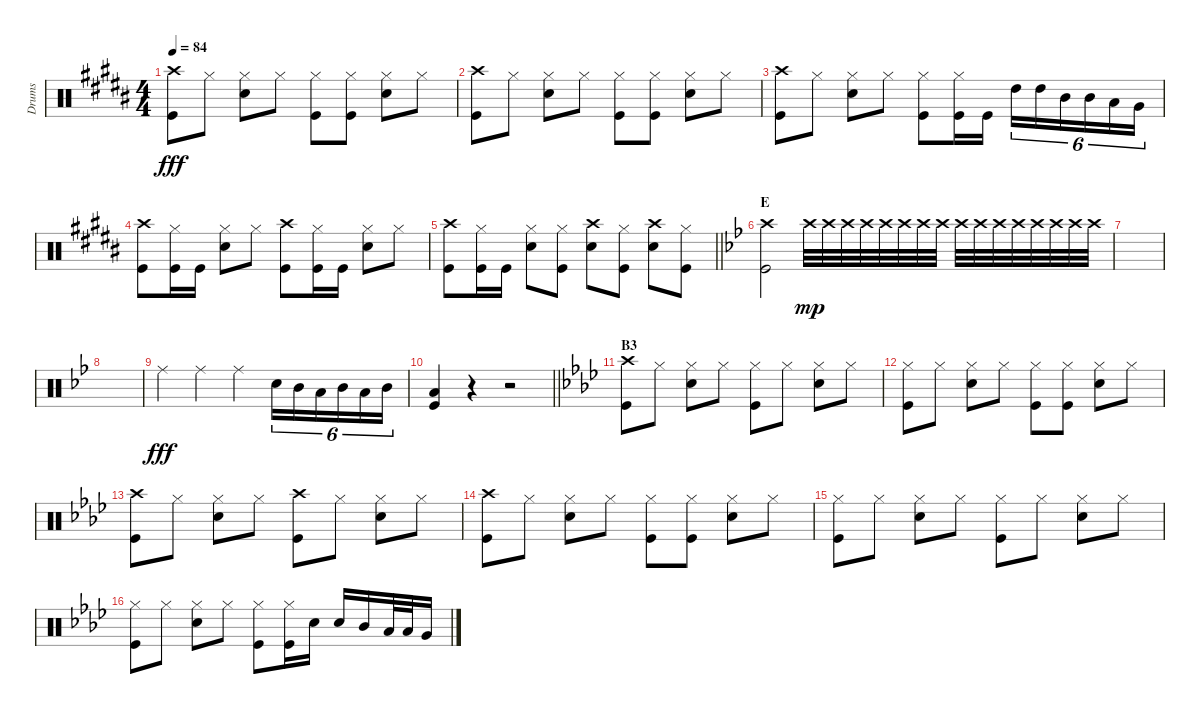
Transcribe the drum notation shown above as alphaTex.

\track ("Drums" "Drums") {instrument percussion}
\staff {score}
\articulation defaults
\ts (4 4)
\tempo 84
\clef neutral
\ks b
("Crash high (hit)" "Kick (hit)").8{dy fff} "Hi-Hat (closed)".8 ("Hi-Hat (closed)" "Snare (hit) 2").8 "Hi-Hat (closed)".8 ("Hi-Hat (closed)" "Kick (hit)").8 ("Hi-Hat (closed)" "Kick (hit)").8 ("Hi-Hat (closed)" "Snare (hit) 2").8 "Hi-Hat (closed)".8 |
("Crash high (hit)" "Kick (hit)").8 "Hi-Hat (closed)".8 ("Hi-Hat (closed)" "Snare (hit) 2").8 "Hi-Hat (closed)".8 ("Hi-Hat (closed)" "Kick (hit)").8 ("Hi-Hat (closed)" "Kick (hit)").8 ("Hi-Hat (closed)" "Snare (hit) 2").8 "Hi-Hat (closed)".8 |
("Crash high (hit)" "Kick (hit)").8 "Hi-Hat (closed)".8 ("Hi-Hat (closed)" "Snare (hit) 2").8 "Hi-Hat (closed)".8 ("Hi-Hat (closed)" "Kick (hit)").8 ("Hi-Hat (closed)" "Kick (hit)").16 "Kick (hit)".16 "High Tom (hit)".16{tu (6 4)} "High Tom (hit)".16{tu (6 4)} "Mid Tom (hit)".16{tu (6 4)} "Mid Tom (hit)".16{tu (6 4)} "Low Tom (hit)".16{tu (6 4)} "Very Low Tom (hit)".16{tu (6 4)} |
("Crash high (hit)" "Kick (hit)").8 ("Hi-Hat (closed)" "Kick (hit)").16 "Kick (hit)".16 ("Hi-Hat (closed)" "Snare (hit) 2").8 "Hi-Hat (closed)".8 ("Crash high (hit)" "Kick (hit)").8 ("Hi-Hat (closed)" "Kick (hit)").16 "Kick (hit)".16 ("Hi-Hat (closed)" "Snare (hit) 2").8 "Hi-Hat (closed)".8 |
\barLineRight lightlight
("Crash high (hit)" "Kick (hit)").8 ("Hi-Hat (closed)" "Kick (hit)").16 "Kick (hit)".16 ("Hi-Hat (closed)" "Snare (hit) 2").8 ("Hi-Hat (closed)" "Kick (hit)").8 ("Crash high (hit)" "Snare (hit) 2").8 ("Hi-Hat (closed)" "Kick (hit)").8 ("Crash high (hit)" "Snare (hit) 2").8 ("Hi-Hat (closed)" "Kick (hit)").8 |
\section ("" "E")
\ks bb
("Crash high (hit)" "Kick (hit)").2 "Crash high (hit)".32{dy mp} "Crash high (hit)".32 "Crash high (hit)".32 "Crash high (hit)".32 "Crash high (hit)".32 "Crash high (hit)".32 "Crash high (hit)".32 "Crash high (hit)".32 "Crash high (hit)".32 "Crash high (hit)".32 "Crash high (hit)".32 "Crash high (hit)".32 "Crash high (hit)".32 "Crash high (hit)".32 "Crash high (hit)".32 "Crash high (hit)".32 |
|
|
"Ride (middle)".4{dy fff} "Ride (middle)".4 "Ride (middle)".4 "Snare (hit) 2".16{tu (6 4)} "Mid Tom (hit)".16{tu (6 4)} "Low Tom (hit)".16{tu (6 4)} "Mid Tom (hit)".16{tu (6 4)} "Low Tom (hit)".16{tu (6 4)} "Mid Tom (hit)".16{tu (6 4)} |
\barLineRight lightlight
("Low Tom (hit)" "Kick (hit)").4 r.4 r.2 |
\section ("" "B3")
\ks ab
("Crash high (hit)" "Kick (hit)").8 "Hi-Hat (closed)".8 ("Hi-Hat (closed)" "Snare (hit) 2").8 "Hi-Hat (closed)".8 ("Hi-Hat (closed)" "Kick (hit)").8 "Hi-Hat (closed)".8 ("Hi-Hat (closed)" "Snare (hit) 2").8 "Hi-Hat (closed)".8 |
("Hi-Hat (closed)" "Kick (hit)").8 "Hi-Hat (closed)".8 ("Hi-Hat (closed)" "Snare (hit) 2").8 "Hi-Hat (closed)".8 ("Hi-Hat (closed)" "Kick (hit)").8 ("Hi-Hat (closed)" "Kick (hit)").8 ("Hi-Hat (closed)" "Snare (hit) 2").8 "Hi-Hat (closed)".8 |
("Crash high (hit)" "Kick (hit)").8 "Hi-Hat (closed)".8 ("Hi-Hat (closed)" "Snare (hit) 2").8 "Hi-Hat (closed)".8 ("Crash high (hit)" "Kick (hit)").8 "Hi-Hat (closed)".8 ("Hi-Hat (closed)" "Snare (hit) 2").8 "Hi-Hat (closed)".8 |
("Crash high (hit)" "Kick (hit)").8 "Hi-Hat (closed)".8 ("Hi-Hat (closed)" "Snare (hit) 2").8 "Hi-Hat (closed)".8 ("Hi-Hat (closed)" "Kick (hit)").8 ("Hi-Hat (closed)" "Kick (hit)").8 ("Hi-Hat (closed)" "Snare (hit) 2").8 "Hi-Hat (closed)".8 |
("Hi-Hat (closed)" "Kick (hit)").8 "Hi-Hat (closed)".8 ("Hi-Hat (closed)" "Snare (hit) 2").8 "Hi-Hat (closed)".8 ("Hi-Hat (closed)" "Kick (hit)").8 "Hi-Hat (closed)".8 ("Hi-Hat (closed)" "Snare (hit) 2").8 "Hi-Hat (closed)".8 |
("Hi-Hat (closed)" "Kick (hit)").8 "Hi-Hat (closed)".8 ("Hi-Hat (closed)" "Snare (hit) 2").8 "Hi-Hat (closed)".8 ("Hi-Hat (closed)" "Kick (hit)").8 ("Hi-Hat (closed)" "Kick (hit)").16 "Snare (hit) 2".16 "Snare (hit) 2".16 "Mid Tom (hit)".16 "Low Tom (hit)".32 "Low Tom (hit)".32 "Very Low Tom (hit)".16
